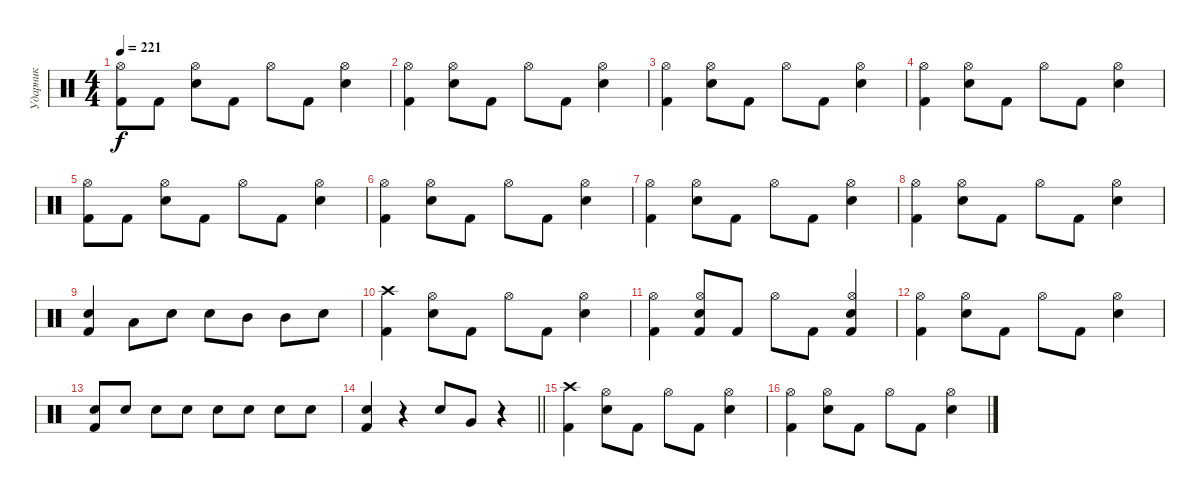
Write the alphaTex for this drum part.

\track ("Ударник" "Ударник") {instrument percussion}
\staff {score}
\articulation defaults
\ts (4 4)
\tempo 221
\clef neutral
\ks c
("Kick (hit) 2" "Hi-Hat (open)").8{dy f} "Kick (hit) 2".8 ("Snare (hit) 2" "Hi-Hat (open)").8 "Kick (hit) 2".8 "Hi-Hat (open)".8 "Kick (hit) 2".8 ("Snare (hit) 2" "Hi-Hat (open)").4 |
("Kick (hit) 2" "Hi-Hat (open)").4 ("Snare (hit) 2" "Hi-Hat (open)").8 "Kick (hit) 2".8 "Hi-Hat (open)".8 "Kick (hit) 2".8 ("Snare (hit) 2" "Hi-Hat (open)").4 |
("Kick (hit) 2" "Hi-Hat (open)").4 ("Snare (hit) 2" "Hi-Hat (open)").8 "Kick (hit) 2".8 "Hi-Hat (open)".8 "Kick (hit) 2".8 ("Snare (hit) 2" "Hi-Hat (open)").4 |
("Kick (hit) 2" "Hi-Hat (open)").4 ("Snare (hit) 2" "Hi-Hat (open)").8 "Kick (hit) 2".8 "Hi-Hat (open)".8 "Kick (hit) 2".8 ("Snare (hit) 2" "Hi-Hat (open)").4 |
("Kick (hit) 2" "Hi-Hat (open)").8 "Kick (hit) 2".8 ("Snare (hit) 2" "Hi-Hat (open)").8 "Kick (hit) 2".8 "Hi-Hat (open)".8 "Kick (hit) 2".8 ("Snare (hit) 2" "Hi-Hat (open)").4 |
("Kick (hit) 2" "Hi-Hat (open)").4 ("Snare (hit) 2" "Hi-Hat (open)").8 "Kick (hit) 2".8 "Hi-Hat (open)".8 "Kick (hit) 2".8 ("Snare (hit) 2" "Hi-Hat (open)").4 |
("Kick (hit) 2" "Hi-Hat (open)").4 ("Snare (hit) 2" "Hi-Hat (open)").8 "Kick (hit) 2".8 "Hi-Hat (open)".8 "Kick (hit) 2".8 ("Snare (hit) 2" "Hi-Hat (open)").4 |
("Kick (hit) 2" "Hi-Hat (open)").4 ("Snare (hit) 2" "Hi-Hat (open)").8 "Kick (hit) 2".8 "Hi-Hat (open)".8 "Kick (hit) 2".8 ("Snare (hit) 2" "Hi-Hat (open)").4 |
("Kick (hit) 2" "Snare (hit) 2").4 "Low Tom (hit)".8 "Snare (hit) 2".8 "Snare (hit) 2".8 "Mid Tom (hit)".8 "Mid Tom (hit)".8 "Snare (hit) 2".8 |
("Kick (hit) 2" "Crash high (hit)").4 ("Snare (hit) 2" "Hi-Hat (open)").8 "Kick (hit) 2".8 "Hi-Hat (open)".8 "Kick (hit) 2".8 ("Snare (hit) 2" "Hi-Hat (open)").4 |
("Kick (hit) 2" "Hi-Hat (open)").4 ("Kick (hit) 2" "Snare (hit) 2" "Hi-Hat (open)").8 "Kick (hit) 2".8 "Hi-Hat (open)".8 "Kick (hit) 2".8 ("Kick (hit) 2" "Snare (hit) 2" "Hi-Hat (open)").4 |
("Kick (hit) 2" "Hi-Hat (open)").4 ("Snare (hit) 2" "Hi-Hat (open)").8 "Kick (hit) 2".8 "Hi-Hat (open)".8 "Kick (hit) 2".8 ("Snare (hit) 2" "Hi-Hat (open)").4 |
("Kick (hit) 2" "Snare (hit) 2").8 "Snare (hit) 2".8 "Snare (hit) 2".8 "Snare (hit) 2".8 "Snare (hit) 2".8 "Snare (hit) 2".8 "Snare (hit) 2".8 "Snare (hit) 2".8 |
\barLineRight lightlight
("Kick (hit) 2" "Snare (hit) 2").4 r.4 "Snare (hit) 2".8 "Very Low Tom (hit)".8 r.4 |
("Kick (hit) 2" "Crash high (hit)").4 ("Snare (hit) 2" "Hi-Hat (open)").8 "Kick (hit) 2".8 "Hi-Hat (open)".8 "Kick (hit) 2".8 ("Snare (hit) 2" "Hi-Hat (open)").4 |
("Kick (hit) 2" "Hi-Hat (open)").4 ("Snare (hit) 2" "Hi-Hat (open)").8 "Kick (hit) 2".8 "Hi-Hat (open)".8 "Kick (hit) 2".8 ("Snare (hit) 2" "Hi-Hat (open)").4
